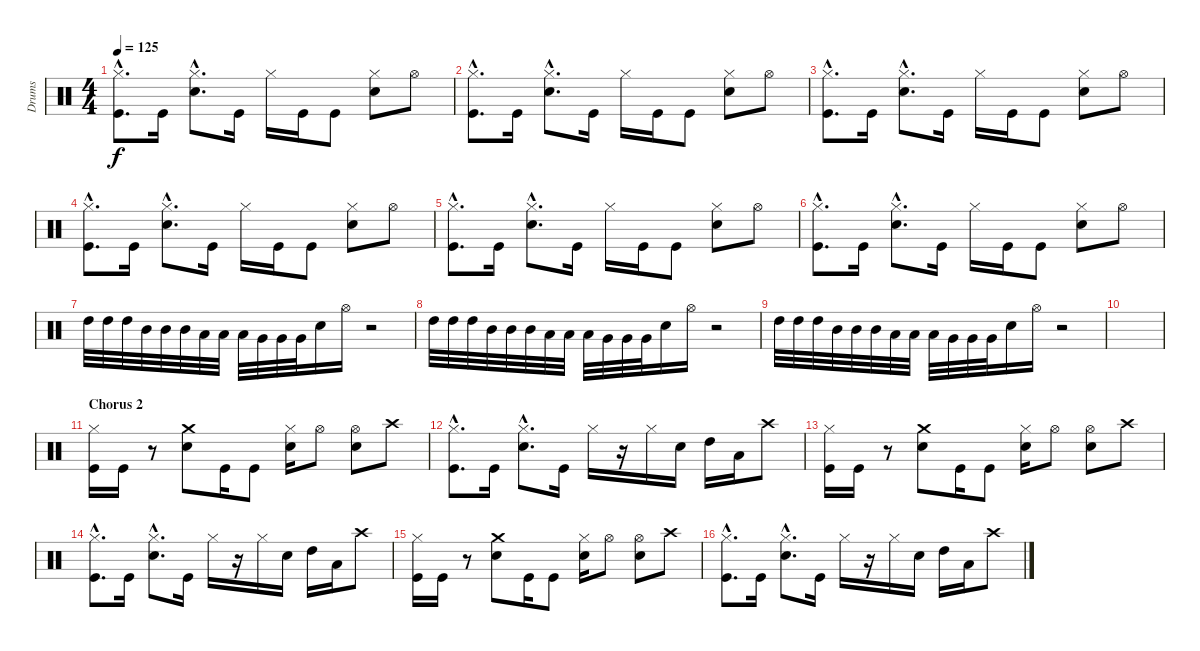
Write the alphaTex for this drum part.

\track ("Drums" "Drums") {instrument percussion}
\staff {score}
\articulation defaults
\ts (4 4)
\tempo 125
\clef neutral
\ks c
("Hi-Hat (closed)"{hac} "Kick (hit)"{hac}).8{d dy f} "Kick (hit)".16 ("Hi-Hat (closed)"{hac} "Electric Snare (hit)"{hac}).8{d} "Kick (hit)".16 "Hi-Hat (closed)".16 "Kick (hit)".16 "Kick (hit)".8 ("Hi-Hat (closed)" "Electric Snare (hit)").8 "Hi-Hat (open)".8 |
("Hi-Hat (closed)"{hac} "Kick (hit)"{hac}).8{d} "Kick (hit)".16 ("Hi-Hat (closed)"{hac} "Electric Snare (hit)"{hac}).8{d} "Kick (hit)".16 "Hi-Hat (closed)".16 "Kick (hit)".16 "Kick (hit)".8 ("Hi-Hat (closed)" "Electric Snare (hit)").8 "Hi-Hat (open)".8 |
("Hi-Hat (closed)"{hac} "Kick (hit)"{hac}).8{d} "Kick (hit)".16 ("Hi-Hat (closed)"{hac} "Electric Snare (hit)"{hac}).8{d} "Kick (hit)".16 "Hi-Hat (closed)".16 "Kick (hit)".16 "Kick (hit)".8 ("Hi-Hat (closed)" "Electric Snare (hit)").8 "Hi-Hat (open)".8 |
("Hi-Hat (closed)"{hac} "Kick (hit)"{hac}).8{d} "Kick (hit)".16 ("Hi-Hat (closed)"{hac} "Electric Snare (hit)"{hac}).8{d} "Kick (hit)".16 "Hi-Hat (closed)".16 "Kick (hit)".16 "Kick (hit)".8 ("Hi-Hat (closed)" "Electric Snare (hit)").8 "Hi-Hat (open)".8 |
("Hi-Hat (closed)"{hac} "Kick (hit)"{hac}).8{d} "Kick (hit)".16 ("Hi-Hat (closed)"{hac} "Electric Snare (hit)"{hac}).8{d} "Kick (hit)".16 "Hi-Hat (closed)".16 "Kick (hit)".16 "Kick (hit)".8 ("Hi-Hat (closed)" "Electric Snare (hit)").8 "Hi-Hat (open)".8 |
("Hi-Hat (closed)"{hac} "Kick (hit)"{hac}).8{d} "Kick (hit)".16 ("Hi-Hat (closed)"{hac} "Electric Snare (hit)"{hac}).8{d} "Kick (hit)".16 "Hi-Hat (closed)".16 "Kick (hit)".16 "Kick (hit)".8 ("Hi-Hat (closed)" "Electric Snare (hit)").8 "Hi-Hat (open)".8 |
"High Tom (hit)".32 "High Tom (hit)".32 "High Tom (hit)".32 "Mid Tom (hit)".32 "Mid Tom (hit)".32 "Mid Tom (hit)".32 "Low Tom (hit)".32 "Low Tom (hit)".32 "Low Tom (hit)".32 "Very Low Tom (hit)".32 "Very Low Tom (hit)".32 "Very Low Tom (hit)".32 "Electric Snare (hit)".16 "Hi-Hat (open)".16 r.2 |
"High Tom (hit)".32 "High Tom (hit)".32 "High Tom (hit)".32 "Mid Tom (hit)".32 "Mid Tom (hit)".32 "Mid Tom (hit)".32 "Low Tom (hit)".32 "Low Tom (hit)".32 "Low Tom (hit)".32 "Very Low Tom (hit)".32 "Very Low Tom (hit)".32 "Very Low Tom (hit)".32 "Electric Snare (hit)".16 "Hi-Hat (open)".16 r.2 |
"High Tom (hit)".32 "High Tom (hit)".32 "High Tom (hit)".32 "Mid Tom (hit)".32 "Mid Tom (hit)".32 "Mid Tom (hit)".32 "Low Tom (hit)".32 "Low Tom (hit)".32 "Low Tom (hit)".32 "Very Low Tom (hit)".32 "Very Low Tom (hit)".32 "Very Low Tom (hit)".32 "Electric Snare (hit)".16 "Hi-Hat (open)".16 r.2 |
|
\section ("" "Chorus 2")
("Hi-Hat (closed)" "Kick (hit)").16 "Kick (hit)".16 r.8 ("Crash medium (hit)" "Electric Snare (hit)").8 "Kick (hit)".16 "Kick (hit)".8 ("Hi-Hat (closed)" "Electric Snare (hit)").16 "Hi-Hat (open)".8 ("Hi-Hat (open)" "Electric Snare (hit)").8 "Crash high (hit)".8 |
("Hi-Hat (closed)"{hac} "Kick (hit)"{hac}).8{d} "Kick (hit)".16 ("Hi-Hat (closed)"{hac} "Electric Snare (hit)"{hac}).8{d} "Kick (hit)".16 "Hi-Hat (closed)".16 r.16 "Hi-Hat (closed)".16 "Electric Snare (hit)".16 "High Tom (hit)".16 "Low Tom (hit)".16 "Crash high (hit)".8 |
("Hi-Hat (closed)" "Kick (hit)").16 "Kick (hit)".16 r.8 ("Crash medium (hit)" "Electric Snare (hit)").8 "Kick (hit)".16 "Kick (hit)".8 ("Hi-Hat (closed)" "Electric Snare (hit)").16 "Hi-Hat (open)".8 ("Hi-Hat (open)" "Electric Snare (hit)").8 "Crash high (hit)".8 |
("Hi-Hat (closed)"{hac} "Kick (hit)"{hac}).8{d} "Kick (hit)".16 ("Hi-Hat (closed)"{hac} "Electric Snare (hit)"{hac}).8{d} "Kick (hit)".16 "Hi-Hat (closed)".16 r.16 "Hi-Hat (closed)".16 "Electric Snare (hit)".16 "High Tom (hit)".16 "Low Tom (hit)".16 "Crash high (hit)".8 |
("Hi-Hat (closed)" "Kick (hit)").16 "Kick (hit)".16 r.8 ("Crash medium (hit)" "Electric Snare (hit)").8 "Kick (hit)".16 "Kick (hit)".8 ("Hi-Hat (closed)" "Electric Snare (hit)").16 "Hi-Hat (open)".8 ("Hi-Hat (open)" "Electric Snare (hit)").8 "Crash high (hit)".8 |
("Hi-Hat (closed)"{hac} "Kick (hit)"{hac}).8{d} "Kick (hit)".16 ("Hi-Hat (closed)"{hac} "Electric Snare (hit)"{hac}).8{d} "Kick (hit)".16 "Hi-Hat (closed)".16 r.16 "Hi-Hat (closed)".16 "Electric Snare (hit)".16 "High Tom (hit)".16 "Low Tom (hit)".16 "Crash high (hit)".8
